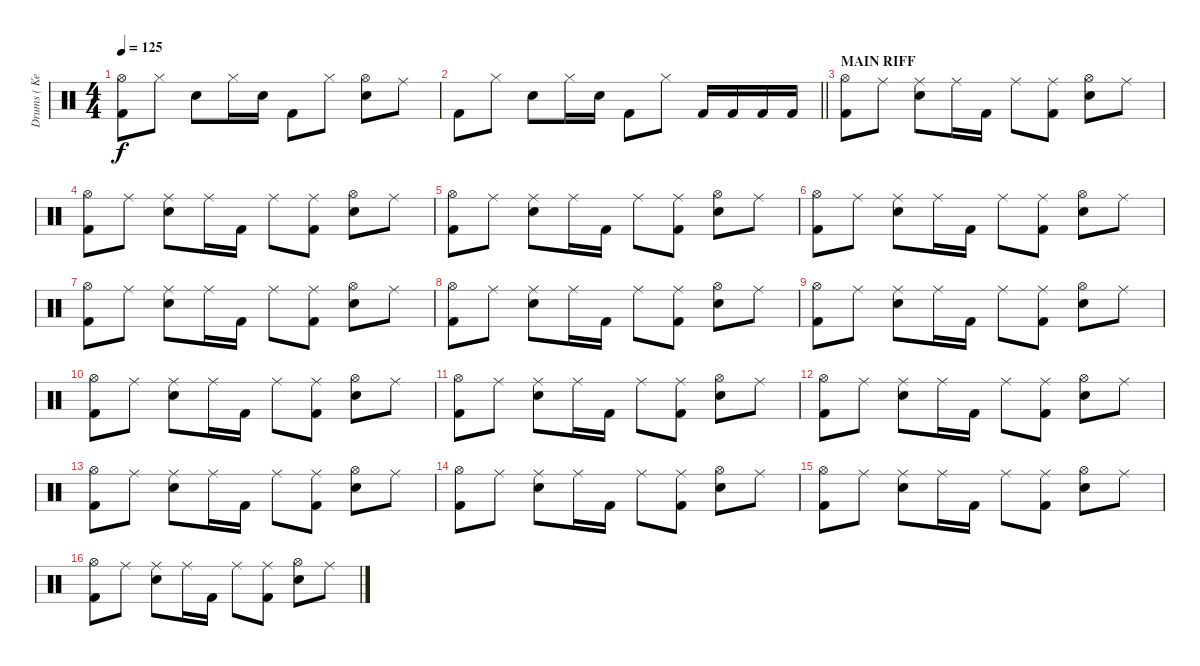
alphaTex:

\track ("Drums ( Ken Jay )" "Drums ( Ke") {instrument percussion}
\staff {score}
\articulation defaults
\ts (4 4)
\tempo 125
\clef neutral
\ks c
("Hi-Hat (open)" "Kick (hit) 2").8{dy f} "Hi-Hat (closed)".8 "Snare (hit) 2".8 "Hi-Hat (closed)".16 "Snare (hit) 2".16 "Kick (hit) 2".8 "Hi-Hat (closed)".8 ("Hi-Hat (open)" "Snare (hit) 2").8 "Ride (middle)".8 |
\barLineRight lightlight "Kick (hit) 2".8 "Hi-Hat (closed)".8 "Snare (hit) 2".8 "Hi-Hat (closed)".16 "Snare (hit) 2".16 "Kick (hit) 2".8 "Hi-Hat (closed)".8 "Kick (hit) 2".16 "Kick (hit) 2".16 "Kick (hit) 2".16 "Kick (hit) 2".16
|
\section ("" "MAIN RIFF")
("Hi-Hat (open)" "Kick (hit) 2").8 "Ride (middle)".8 ("Ride (middle)" "Snare (hit) 2").8 "Ride (middle)".16 "Kick (hit) 2".16 "Ride (middle)".8 ("Ride (middle)" "Kick (hit) 2").8 ("Hi-Hat (open)" "Snare (hit) 2").8 "Ride (middle)".8 |
("Hi-Hat (open)" "Kick (hit) 2").8 "Ride (middle)".8 ("Ride (middle)" "Snare (hit) 2").8 "Ride (middle)".16 "Kick (hit) 2".16 "Ride (middle)".8 ("Ride (middle)" "Kick (hit) 2").8 ("Hi-Hat (open)" "Snare (hit) 2").8 "Ride (middle)".8 |
("Hi-Hat (open)" "Kick (hit) 2").8 "Ride (middle)".8 ("Ride (middle)" "Snare (hit) 2").8 "Ride (middle)".16 "Kick (hit) 2".16 "Ride (middle)".8 ("Ride (middle)" "Kick (hit) 2").8 ("Hi-Hat (open)" "Snare (hit) 2").8 "Ride (middle)".8 |
("Hi-Hat (open)" "Kick (hit) 2").8 "Ride (middle)".8 ("Ride (middle)" "Snare (hit) 2").8 "Ride (middle)".16 "Kick (hit) 2".16 "Ride (middle)".8 ("Ride (middle)" "Kick (hit) 2").8 ("Hi-Hat (open)" "Snare (hit) 2").8 "Ride (middle)".8 |
("Hi-Hat (open)" "Kick (hit) 2").8 "Ride (middle)".8 ("Ride (middle)" "Snare (hit) 2").8 "Ride (middle)".16 "Kick (hit) 2".16 "Ride (middle)".8 ("Ride (middle)" "Kick (hit) 2").8 ("Hi-Hat (open)" "Snare (hit) 2").8 "Ride (middle)".8 |
("Hi-Hat (open)" "Kick (hit) 2").8 "Ride (middle)".8 ("Ride (middle)" "Snare (hit) 2").8 "Ride (middle)".16 "Kick (hit) 2".16 "Ride (middle)".8 ("Ride (middle)" "Kick (hit) 2").8 ("Hi-Hat (open)" "Snare (hit) 2").8 "Ride (middle)".8 |
("Hi-Hat (open)" "Kick (hit) 2").8 "Ride (middle)".8 ("Ride (middle)" "Snare (hit) 2").8 "Ride (middle)".16 "Kick (hit) 2".16 "Ride (middle)".8 ("Ride (middle)" "Kick (hit) 2").8 ("Hi-Hat (open)" "Snare (hit) 2").8 "Ride (middle)".8 |
("Hi-Hat (open)" "Kick (hit) 2").8 "Ride (middle)".8 ("Ride (middle)" "Snare (hit) 2").8 "Ride (middle)".16 "Kick (hit) 2".16 "Ride (middle)".8 ("Ride (middle)" "Kick (hit) 2").8 ("Hi-Hat (open)" "Snare (hit) 2").8 "Ride (middle)".8 |
("Hi-Hat (open)" "Kick (hit) 2").8 "Ride (middle)".8 ("Ride (middle)" "Snare (hit) 2").8 "Ride (middle)".16 "Kick (hit) 2".16 "Ride (middle)".8 ("Ride (middle)" "Kick (hit) 2").8 ("Hi-Hat (open)" "Snare (hit) 2").8 "Ride (middle)".8 |
("Hi-Hat (open)" "Kick (hit) 2").8 "Ride (middle)".8 ("Ride (middle)" "Snare (hit) 2").8 "Ride (middle)".16 "Kick (hit) 2".16 "Ride (middle)".8 ("Ride (middle)" "Kick (hit) 2").8 ("Hi-Hat (open)" "Snare (hit) 2").8 "Ride (middle)".8 |
("Hi-Hat (open)" "Kick (hit) 2").8 "Ride (middle)".8 ("Ride (middle)" "Snare (hit) 2").8 "Ride (middle)".16 "Kick (hit) 2".16 "Ride (middle)".8 ("Ride (middle)" "Kick (hit) 2").8 ("Hi-Hat (open)" "Snare (hit) 2").8 "Ride (middle)".8 |
("Hi-Hat (open)" "Kick (hit) 2").8 "Ride (middle)".8 ("Ride (middle)" "Snare (hit) 2").8 "Ride (middle)".16 "Kick (hit) 2".16 "Ride (middle)".8 ("Ride (middle)" "Kick (hit) 2").8 ("Hi-Hat (open)" "Snare (hit) 2").8 "Ride (middle)".8 |
("Hi-Hat (open)" "Kick (hit) 2").8 "Ride (middle)".8 ("Ride (middle)" "Snare (hit) 2").8 "Ride (middle)".16 "Kick (hit) 2".16 "Ride (middle)".8 ("Ride (middle)" "Kick (hit) 2").8 ("Hi-Hat (open)" "Snare (hit) 2").8 "Ride (middle)".8 |
("Hi-Hat (open)" "Kick (hit) 2").8 "Ride (middle)".8 ("Ride (middle)" "Snare (hit) 2").8 "Ride (middle)".16 "Kick (hit) 2".16 "Ride (middle)".8 ("Ride (middle)" "Kick (hit) 2").8 ("Hi-Hat (open)" "Snare (hit) 2").8 "Ride (middle)".8
